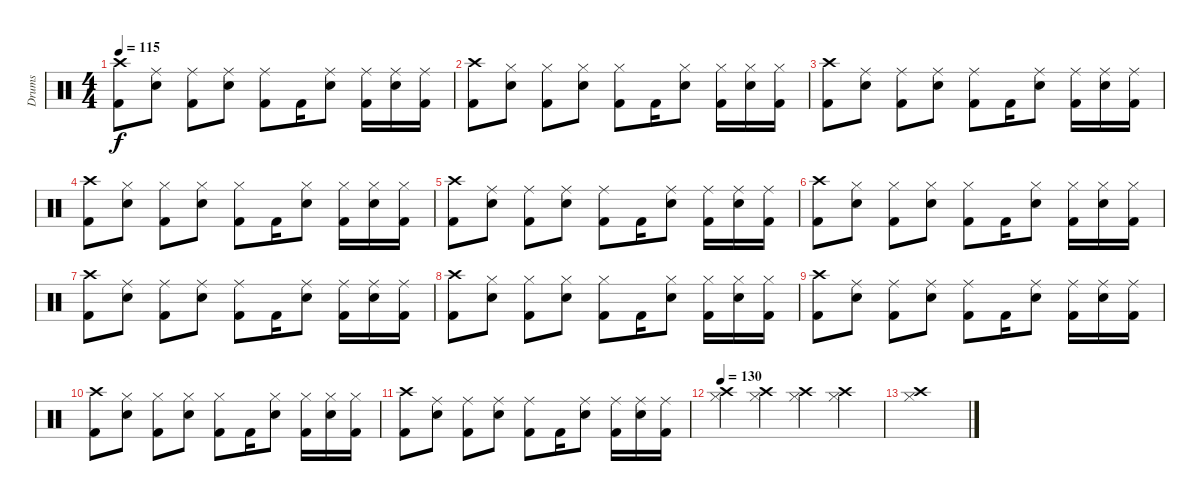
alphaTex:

\track ("Drums" "Drums") {instrument percussion}
\staff {score}
\articulation defaults
\ts (4 4)
\tempo 115
\clef neutral
\ks c
("Crash high (hit)" "Kick (hit) 2").8{dy f} ("Ride (middle)" "Electric Snare (hit)").8 ("Ride (middle)" "Kick (hit) 2").8 ("Ride (middle)" "Electric Snare (hit)").8 ("Ride (middle)" "Kick (hit) 2").8 "Kick (hit) 2".16 ("Ride (middle)" "Electric Snare (hit)").8 ("Ride (middle)" "Kick (hit) 2").16 ("Ride (middle)" "Electric Snare (hit)").16 ("Ride (middle)" "Kick (hit) 2").16 |
("Crash high (hit)" "Kick (hit) 2").8 ("Hi-Hat (closed)" "Electric Snare (hit)").8 ("Hi-Hat (closed)" "Kick (hit) 2").8 ("Hi-Hat (closed)" "Electric Snare (hit)").8 ("Hi-Hat (closed)" "Kick (hit) 2").8 "Kick (hit) 2".16 ("Hi-Hat (closed)" "Electric Snare (hit)").8 ("Hi-Hat (closed)" "Kick (hit) 2").16 ("Hi-Hat (closed)" "Electric Snare (hit)").16 ("Hi-Hat (closed)" "Kick (hit) 2").16 |
("Crash high (hit)" "Kick (hit) 2").8 ("Ride (middle)" "Electric Snare (hit)").8 ("Ride (middle)" "Kick (hit) 2").8 ("Ride (middle)" "Electric Snare (hit)").8 ("Ride (middle)" "Kick (hit) 2").8 "Kick (hit) 2".16 ("Ride (middle)" "Electric Snare (hit)").8 ("Ride (middle)" "Kick (hit) 2").16 ("Ride (middle)" "Electric Snare (hit)").16 ("Ride (middle)" "Kick (hit) 2").16 |
("Crash high (hit)" "Kick (hit) 2").8 ("Hi-Hat (closed)" "Electric Snare (hit)").8 ("Hi-Hat (closed)" "Kick (hit) 2").8 ("Hi-Hat (closed)" "Electric Snare (hit)").8 ("Hi-Hat (closed)" "Kick (hit) 2").8 "Kick (hit) 2".16 ("Hi-Hat (closed)" "Electric Snare (hit)").8 ("Hi-Hat (closed)" "Kick (hit) 2").16 ("Hi-Hat (closed)" "Electric Snare (hit)").16 ("Hi-Hat (closed)" "Kick (hit) 2").16 |
("Crash high (hit)" "Kick (hit) 2").8 ("Ride (middle)" "Electric Snare (hit)").8 ("Ride (middle)" "Kick (hit) 2").8 ("Ride (middle)" "Electric Snare (hit)").8 ("Ride (middle)" "Kick (hit) 2").8 "Kick (hit) 2".16 ("Ride (middle)" "Electric Snare (hit)").8 ("Ride (middle)" "Kick (hit) 2").16 ("Ride (middle)" "Electric Snare (hit)").16 ("Ride (middle)" "Kick (hit) 2").16 |
("Crash high (hit)" "Kick (hit) 2").8 ("Hi-Hat (closed)" "Electric Snare (hit)").8 ("Hi-Hat (closed)" "Kick (hit) 2").8 ("Hi-Hat (closed)" "Electric Snare (hit)").8 ("Hi-Hat (closed)" "Kick (hit) 2").8 "Kick (hit) 2".16 ("Hi-Hat (closed)" "Electric Snare (hit)").8 ("Hi-Hat (closed)" "Kick (hit) 2").16 ("Hi-Hat (closed)" "Electric Snare (hit)").16 ("Hi-Hat (closed)" "Kick (hit) 2").16 |
("Crash high (hit)" "Kick (hit) 2").8 ("Ride (middle)" "Electric Snare (hit)").8 ("Ride (middle)" "Kick (hit) 2").8 ("Ride (middle)" "Electric Snare (hit)").8 ("Ride (middle)" "Kick (hit) 2").8 "Kick (hit) 2".16 ("Ride (middle)" "Electric Snare (hit)").8 ("Ride (middle)" "Kick (hit) 2").16 ("Ride (middle)" "Electric Snare (hit)").16 ("Ride (middle)" "Kick (hit) 2").16 |
("Crash high (hit)" "Kick (hit) 2").8 ("Hi-Hat (closed)" "Electric Snare (hit)").8 ("Hi-Hat (closed)" "Kick (hit) 2").8 ("Hi-Hat (closed)" "Electric Snare (hit)").8 ("Hi-Hat (closed)" "Kick (hit) 2").8 "Kick (hit) 2".16 ("Hi-Hat (closed)" "Electric Snare (hit)").8 ("Hi-Hat (closed)" "Kick (hit) 2").16 ("Hi-Hat (closed)" "Electric Snare (hit)").16 ("Hi-Hat (closed)" "Kick (hit) 2").16 |
("Crash high (hit)" "Kick (hit) 2").8 ("Ride (middle)" "Electric Snare (hit)").8 ("Ride (middle)" "Kick (hit) 2").8 ("Ride (middle)" "Electric Snare (hit)").8 ("Ride (middle)" "Kick (hit) 2").8 "Kick (hit) 2".16 ("Ride (middle)" "Electric Snare (hit)").8 ("Ride (middle)" "Kick (hit) 2").16 ("Ride (middle)" "Electric Snare (hit)").16 ("Ride (middle)" "Kick (hit) 2").16 |
("Crash high (hit)" "Kick (hit) 2").8 ("Hi-Hat (closed)" "Electric Snare (hit)").8 ("Hi-Hat (closed)" "Kick (hit) 2").8 ("Hi-Hat (closed)" "Electric Snare (hit)").8 ("Hi-Hat (closed)" "Kick (hit) 2").8 "Kick (hit) 2".16 ("Hi-Hat (closed)" "Electric Snare (hit)").8 ("Hi-Hat (closed)" "Kick (hit) 2").16 ("Hi-Hat (closed)" "Electric Snare (hit)").16 ("Hi-Hat (closed)" "Kick (hit) 2").16 |
("Crash high (hit)" "Kick (hit) 2").8 ("Ride (middle)" "Electric Snare (hit)").8 ("Ride (middle)" "Kick (hit) 2").8 ("Ride (middle)" "Electric Snare (hit)").8 ("Ride (middle)" "Kick (hit) 2").8 "Kick (hit) 2".16 ("Ride (middle)" "Electric Snare (hit)").8 ("Ride (middle)" "Kick (hit) 2").16 ("Ride (middle)" "Electric Snare (hit)").16 ("Ride (middle)" "Kick (hit) 2").16 |
\tempo 130
("Crash high (hit)" "Hi-Hat (closed)").4 ("Crash high (hit)" "Hi-Hat (closed)").4 ("Crash high (hit)" "Hi-Hat (closed)").4 ("Crash high (hit)" "Hi-Hat (closed)").4 |
("Crash high (hit)" "Hi-Hat (closed)").1
